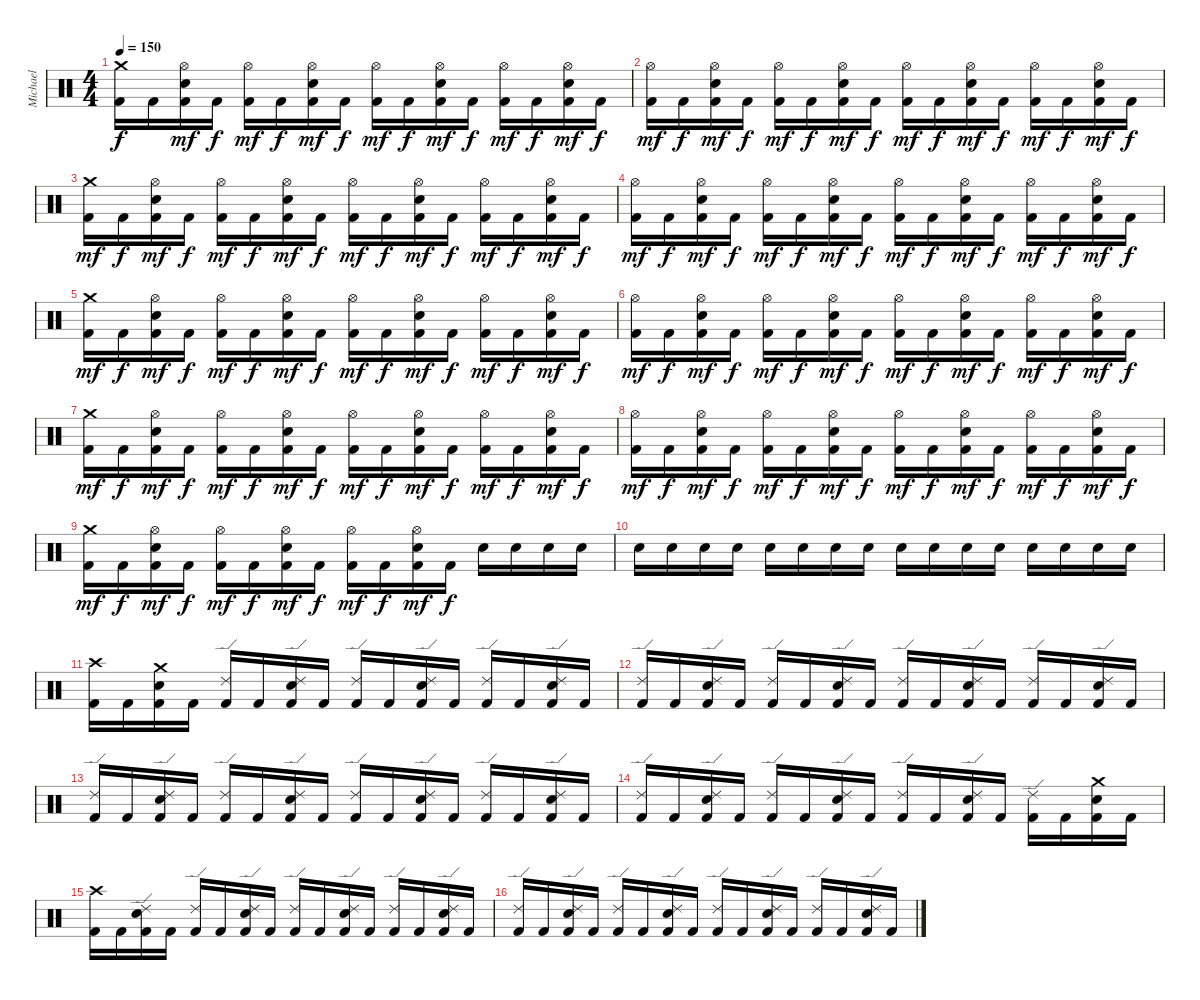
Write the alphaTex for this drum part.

\track ("Michael" "Michael") {instrument percussion}
\staff {score}
\articulation defaults
\ts (4 4)
\tempo 150
\clef neutral
\ks c
("Crash medium (hit)" "Kick (hit) 2").16{dy f} "Kick (hit) 2".16 ("Hi-Hat (open)" "Electric Snare (hit)" "Kick (hit) 2").16{dy mf} "Kick (hit) 2".16{dy f} ("Hi-Hat (open)" "Kick (hit) 2").16{dy mf} "Kick (hit) 2".16{dy f} ("Hi-Hat (open)" "Electric Snare (hit)" "Kick (hit) 2").16{dy mf} "Kick (hit) 2".16{dy f} ("Hi-Hat (open)" "Kick (hit) 2").16{dy mf} "Kick (hit) 2".16{dy f} ("Hi-Hat (open)" "Electric Snare (hit)" "Kick (hit) 2").16{dy mf} "Kick (hit) 2".16{dy f} ("Hi-Hat (open)" "Kick (hit) 2").16{dy mf} "Kick (hit) 2".16{dy f} ("Hi-Hat (open)" "Electric Snare (hit)" "Kick (hit) 2").16{dy mf} "Kick (hit) 2".16{dy f} |
("Hi-Hat (open)" "Kick (hit) 2").16{dy mf} "Kick (hit) 2".16{dy f} ("Hi-Hat (open)" "Electric Snare (hit)" "Kick (hit) 2").16{dy mf} "Kick (hit) 2".16{dy f} ("Hi-Hat (open)" "Kick (hit) 2").16{dy mf} "Kick (hit) 2".16{dy f} ("Hi-Hat (open)" "Electric Snare (hit)" "Kick (hit) 2").16{dy mf} "Kick (hit) 2".16{dy f} ("Hi-Hat (open)" "Kick (hit) 2").16{dy mf} "Kick (hit) 2".16{dy f} ("Hi-Hat (open)" "Electric Snare (hit)" "Kick (hit) 2").16{dy mf} "Kick (hit) 2".16{dy f} ("Hi-Hat (open)" "Kick (hit) 2").16{dy mf} "Kick (hit) 2".16{dy f} ("Hi-Hat (open)" "Electric Snare (hit)" "Kick (hit) 2").16{dy mf} "Kick (hit) 2".16{dy f} |
("Crash medium (hit)" "Kick (hit) 2").16{dy mf} "Kick (hit) 2".16{dy f} ("Hi-Hat (open)" "Electric Snare (hit)" "Kick (hit) 2").16{dy mf} "Kick (hit) 2".16{dy f} ("Hi-Hat (open)" "Kick (hit) 2").16{dy mf} "Kick (hit) 2".16{dy f} ("Hi-Hat (open)" "Electric Snare (hit)" "Kick (hit) 2").16{dy mf} "Kick (hit) 2".16{dy f} ("Hi-Hat (open)" "Kick (hit) 2").16{dy mf} "Kick (hit) 2".16{dy f} ("Hi-Hat (open)" "Electric Snare (hit)" "Kick (hit) 2").16{dy mf} "Kick (hit) 2".16{dy f} ("Hi-Hat (open)" "Kick (hit) 2").16{dy mf} "Kick (hit) 2".16{dy f} ("Hi-Hat (open)" "Electric Snare (hit)" "Kick (hit) 2").16{dy mf} "Kick (hit) 2".16{dy f} |
("Hi-Hat (open)" "Kick (hit) 2").16{dy mf} "Kick (hit) 2".16{dy f} ("Hi-Hat (open)" "Electric Snare (hit)" "Kick (hit) 2").16{dy mf} "Kick (hit) 2".16{dy f} ("Hi-Hat (open)" "Kick (hit) 2").16{dy mf} "Kick (hit) 2".16{dy f} ("Hi-Hat (open)" "Electric Snare (hit)" "Kick (hit) 2").16{dy mf} "Kick (hit) 2".16{dy f} ("Hi-Hat (open)" "Kick (hit) 2").16{dy mf} "Kick (hit) 2".16{dy f} ("Hi-Hat (open)" "Electric Snare (hit)" "Kick (hit) 2").16{dy mf} "Kick (hit) 2".16{dy f} ("Hi-Hat (open)" "Kick (hit) 2").16{dy mf} "Kick (hit) 2".16{dy f} ("Hi-Hat (open)" "Electric Snare (hit)" "Kick (hit) 2").16{dy mf} "Kick (hit) 2".16{dy f} |
("Crash medium (hit)" "Kick (hit) 2").16{dy mf} "Kick (hit) 2".16{dy f} ("Hi-Hat (open)" "Electric Snare (hit)" "Kick (hit) 2").16{dy mf} "Kick (hit) 2".16{dy f} ("Hi-Hat (open)" "Kick (hit) 2").16{dy mf} "Kick (hit) 2".16{dy f} ("Hi-Hat (open)" "Electric Snare (hit)" "Kick (hit) 2").16{dy mf} "Kick (hit) 2".16{dy f} ("Hi-Hat (open)" "Kick (hit) 2").16{dy mf} "Kick (hit) 2".16{dy f} ("Hi-Hat (open)" "Electric Snare (hit)" "Kick (hit) 2").16{dy mf} "Kick (hit) 2".16{dy f} ("Hi-Hat (open)" "Kick (hit) 2").16{dy mf} "Kick (hit) 2".16{dy f} ("Hi-Hat (open)" "Electric Snare (hit)" "Kick (hit) 2").16{dy mf} "Kick (hit) 2".16{dy f} |
("Hi-Hat (open)" "Kick (hit) 2").16{dy mf} "Kick (hit) 2".16{dy f} ("Hi-Hat (open)" "Electric Snare (hit)" "Kick (hit) 2").16{dy mf} "Kick (hit) 2".16{dy f} ("Hi-Hat (open)" "Kick (hit) 2").16{dy mf} "Kick (hit) 2".16{dy f} ("Hi-Hat (open)" "Electric Snare (hit)" "Kick (hit) 2").16{dy mf} "Kick (hit) 2".16{dy f} ("Hi-Hat (open)" "Kick (hit) 2").16{dy mf} "Kick (hit) 2".16{dy f} ("Hi-Hat (open)" "Electric Snare (hit)" "Kick (hit) 2").16{dy mf} "Kick (hit) 2".16{dy f} ("Hi-Hat (open)" "Kick (hit) 2").16{dy mf} "Kick (hit) 2".16{dy f} ("Hi-Hat (open)" "Electric Snare (hit)" "Kick (hit) 2").16{dy mf} "Kick (hit) 2".16{dy f} |
("Crash medium (hit)" "Kick (hit) 2").16{dy mf} "Kick (hit) 2".16{dy f} ("Hi-Hat (open)" "Electric Snare (hit)" "Kick (hit) 2").16{dy mf} "Kick (hit) 2".16{dy f} ("Hi-Hat (open)" "Kick (hit) 2").16{dy mf} "Kick (hit) 2".16{dy f} ("Hi-Hat (open)" "Electric Snare (hit)" "Kick (hit) 2").16{dy mf} "Kick (hit) 2".16{dy f} ("Hi-Hat (open)" "Kick (hit) 2").16{dy mf} "Kick (hit) 2".16{dy f} ("Hi-Hat (open)" "Electric Snare (hit)" "Kick (hit) 2").16{dy mf} "Kick (hit) 2".16{dy f} ("Hi-Hat (open)" "Kick (hit) 2").16{dy mf} "Kick (hit) 2".16{dy f} ("Hi-Hat (open)" "Electric Snare (hit)" "Kick (hit) 2").16{dy mf} "Kick (hit) 2".16{dy f} |
("Hi-Hat (open)" "Kick (hit) 2").16{dy mf} "Kick (hit) 2".16{dy f} ("Hi-Hat (open)" "Electric Snare (hit)" "Kick (hit) 2").16{dy mf} "Kick (hit) 2".16{dy f} ("Hi-Hat (open)" "Kick (hit) 2").16{dy mf} "Kick (hit) 2".16{dy f} ("Hi-Hat (open)" "Electric Snare (hit)" "Kick (hit) 2").16{dy mf} "Kick (hit) 2".16{dy f} ("Hi-Hat (open)" "Kick (hit) 2").16{dy mf} "Kick (hit) 2".16{dy f} ("Hi-Hat (open)" "Electric Snare (hit)" "Kick (hit) 2").16{dy mf} "Kick (hit) 2".16{dy f} ("Hi-Hat (open)" "Kick (hit) 2").16{dy mf} "Kick (hit) 2".16{dy f} ("Hi-Hat (open)" "Electric Snare (hit)" "Kick (hit) 2").16{dy mf} "Kick (hit) 2".16{dy f} |
("Crash medium (hit)" "Kick (hit) 2").16{dy mf} "Kick (hit) 2".16{dy f} ("Hi-Hat (open)" "Electric Snare (hit)" "Kick (hit) 2").16{dy mf} "Kick (hit) 2".16{dy f} ("Hi-Hat (open)" "Kick (hit) 2").16{dy mf} "Kick (hit) 2".16{dy f} ("Hi-Hat (open)" "Electric Snare (hit)" "Kick (hit) 2").16{dy mf} "Kick (hit) 2".16{dy f} ("Hi-Hat (open)" "Kick (hit) 2").16{dy mf} "Kick (hit) 2".16{dy f} ("Hi-Hat (open)" "Electric Snare (hit)" "Kick (hit) 2").16{dy mf} "Kick (hit) 2".16{dy f} "Electric Snare (hit)".16 "Electric Snare (hit)".16 "Electric Snare (hit)".16 "Electric Snare (hit)".16 |
"Electric Snare (hit)".16 "Electric Snare (hit)".16 "Electric Snare (hit)".16 "Electric Snare (hit)".16 "Electric Snare (hit)".16 "Electric Snare (hit)".16 "Electric Snare (hit)".16 "Electric Snare (hit)".16 "Electric Snare (hit)".16 "Electric Snare (hit)".16 "Electric Snare (hit)".16 "Electric Snare (hit)".16 "Electric Snare (hit)".16 "Electric Snare (hit)".16 "Electric Snare (hit)".16 "Electric Snare (hit)".16 |
("Crash high (hit)" "Kick (hit) 2").16 "Kick (hit) 2".16 ("Crash medium (hit)" "Electric Snare (hit)" "Kick (hit) 2").16 "Kick (hit) 2".16 ("Ride (edge) 2" "Kick (hit) 2").16 "Kick (hit) 2".16 ("Ride (edge) 2" "Electric Snare (hit)" "Kick (hit) 2").16 "Kick (hit) 2".16 ("Ride (edge) 2" "Kick (hit) 2").16 "Kick (hit) 2".16 ("Ride (edge) 2" "Electric Snare (hit)" "Kick (hit) 2").16 "Kick (hit) 2".16 ("Ride (edge) 2" "Kick (hit) 2").16 "Kick (hit) 2".16 ("Ride (edge) 2" "Electric Snare (hit)" "Kick (hit) 2").16 "Kick (hit) 2".16 |
("Ride (edge) 2" "Kick (hit) 2").16 "Kick (hit) 2".16 ("Ride (edge) 2" "Electric Snare (hit)" "Kick (hit) 2").16 "Kick (hit) 2".16 ("Ride (edge) 2" "Kick (hit) 2").16 "Kick (hit) 2".16 ("Ride (edge) 2" "Electric Snare (hit)" "Kick (hit) 2").16 "Kick (hit) 2".16 ("Ride (edge) 2" "Kick (hit) 2").16 "Kick (hit) 2".16 ("Ride (edge) 2" "Electric Snare (hit)" "Kick (hit) 2").16 "Kick (hit) 2".16 ("Ride (edge) 2" "Kick (hit) 2").16 "Kick (hit) 2".16 ("Ride (edge) 2" "Electric Snare (hit)" "Kick (hit) 2").16 "Kick (hit) 2".16 |
("Ride (edge) 2" "Kick (hit) 2").16 "Kick (hit) 2".16 ("Ride (edge) 2" "Electric Snare (hit)" "Kick (hit) 2").16 "Kick (hit) 2".16 ("Ride (edge) 2" "Kick (hit) 2").16 "Kick (hit) 2".16 ("Ride (edge) 2" "Electric Snare (hit)" "Kick (hit) 2").16 "Kick (hit) 2".16 ("Ride (edge) 2" "Kick (hit) 2").16 "Kick (hit) 2".16 ("Ride (edge) 2" "Electric Snare (hit)" "Kick (hit) 2").16 "Kick (hit) 2".16 ("Ride (edge) 2" "Kick (hit) 2").16 "Kick (hit) 2".16 ("Ride (edge) 2" "Electric Snare (hit)" "Kick (hit) 2").16 "Kick (hit) 2".16 |
("Ride (edge) 2" "Kick (hit) 2").16 "Kick (hit) 2".16 ("Ride (edge) 2" "Electric Snare (hit)" "Kick (hit) 2").16 "Kick (hit) 2".16 ("Ride (edge) 2" "Kick (hit) 2").16 "Kick (hit) 2".16 ("Ride (edge) 2" "Electric Snare (hit)" "Kick (hit) 2").16 "Kick (hit) 2".16 ("Ride (edge) 2" "Kick (hit) 2").16 "Kick (hit) 2".16 ("Ride (edge) 2" "Electric Snare (hit)" "Kick (hit) 2").16 "Kick (hit) 2".16 ("Ride (edge) 2" "Kick (hit) 2").16 "Kick (hit) 2".16 ("Crash medium (hit)" "Electric Snare (hit)" "Kick (hit) 2").16 "Kick (hit) 2".16 |
("Crash high (hit)" "Kick (hit) 2").16 "Kick (hit) 2".16 ("Ride (edge) 2" "Electric Snare (hit)" "Kick (hit) 2").16 "Kick (hit) 2".16 ("Ride (edge) 2" "Kick (hit) 2").16 "Kick (hit) 2".16 ("Ride (edge) 2" "Electric Snare (hit)" "Kick (hit) 2").16 "Kick (hit) 2".16 ("Ride (edge) 2" "Kick (hit) 2").16 "Kick (hit) 2".16 ("Ride (edge) 2" "Electric Snare (hit)" "Kick (hit) 2").16 "Kick (hit) 2".16 ("Ride (edge) 2" "Kick (hit) 2").16 "Kick (hit) 2".16 ("Ride (edge) 2" "Electric Snare (hit)" "Kick (hit) 2").16 "Kick (hit) 2".16 |
("Ride (edge) 2" "Kick (hit) 2").16 "Kick (hit) 2".16 ("Ride (edge) 2" "Electric Snare (hit)" "Kick (hit) 2").16 "Kick (hit) 2".16 ("Ride (edge) 2" "Kick (hit) 2").16 "Kick (hit) 2".16 ("Ride (edge) 2" "Electric Snare (hit)" "Kick (hit) 2").16 "Kick (hit) 2".16 ("Ride (edge) 2" "Kick (hit) 2").16 "Kick (hit) 2".16 ("Ride (edge) 2" "Electric Snare (hit)" "Kick (hit) 2").16 "Kick (hit) 2".16 ("Ride (edge) 2" "Kick (hit) 2").16 "Kick (hit) 2".16 ("Ride (edge) 2" "Electric Snare (hit)" "Kick (hit) 2").16 "Kick (hit) 2".16
